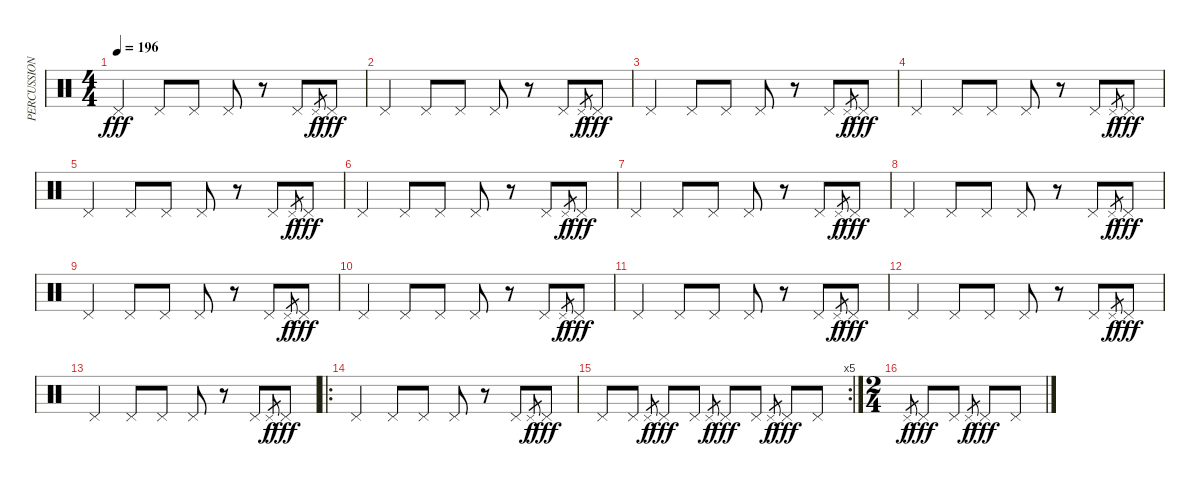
\track ("PERCUSSION" "PERCUSSION") {instrument percussion}
\staff {score}
\articulation defaults
\ts (4 4)
\tempo 196
\clef neutral
\ks c "Pedal Hi-Hat (hit)".4{dy fff} "Pedal Hi-Hat (hit)".8 "Pedal Hi-Hat (hit)".8 "Pedal Hi-Hat (hit)".8
r.8 "Pedal Hi-Hat (hit)".8 "Pedal Hi-Hat (hit)".8{gr dy f} "Pedal Hi-Hat (hit)".8{dy fff} |
"Pedal Hi-Hat (hit)".4 "Pedal Hi-Hat (hit)".8 "Pedal Hi-Hat (hit)".8 "Pedal Hi-Hat (hit)".8 r.8 "Pedal Hi-Hat (hit)".8 "Pedal Hi-Hat (hit)".8{gr dy f} "Pedal Hi-Hat (hit)".8{dy fff} |
"Pedal Hi-Hat (hit)".4 "Pedal Hi-Hat (hit)".8 "Pedal Hi-Hat (hit)".8 "Pedal Hi-Hat (hit)".8 r.8 "Pedal Hi-Hat (hit)".8 "Pedal Hi-Hat (hit)".8{gr dy f} "Pedal Hi-Hat (hit)".8{dy fff} |
"Pedal Hi-Hat (hit)".4 "Pedal Hi-Hat (hit)".8 "Pedal Hi-Hat (hit)".8 "Pedal Hi-Hat (hit)".8 r.8 "Pedal Hi-Hat (hit)".8 "Pedal Hi-Hat (hit)".8{gr dy f} "Pedal Hi-Hat (hit)".8{dy fff} |
"Pedal Hi-Hat (hit)".4 "Pedal Hi-Hat (hit)".8 "Pedal Hi-Hat (hit)".8 "Pedal Hi-Hat (hit)".8 r.8 "Pedal Hi-Hat (hit)".8 "Pedal Hi-Hat (hit)".8{gr dy f} "Pedal Hi-Hat (hit)".8{dy fff} |
"Pedal Hi-Hat (hit)".4 "Pedal Hi-Hat (hit)".8 "Pedal Hi-Hat (hit)".8 "Pedal Hi-Hat (hit)".8 r.8 "Pedal Hi-Hat (hit)".8 "Pedal Hi-Hat (hit)".8{gr dy f} "Pedal Hi-Hat (hit)".8{dy fff} |
"Pedal Hi-Hat (hit)".4 "Pedal Hi-Hat (hit)".8 "Pedal Hi-Hat (hit)".8 "Pedal Hi-Hat (hit)".8 r.8 "Pedal Hi-Hat (hit)".8 "Pedal Hi-Hat (hit)".8{gr dy f} "Pedal Hi-Hat (hit)".8{dy fff} |
"Pedal Hi-Hat (hit)".4 "Pedal Hi-Hat (hit)".8 "Pedal Hi-Hat (hit)".8 "Pedal Hi-Hat (hit)".8 r.8 "Pedal Hi-Hat (hit)".8 "Pedal Hi-Hat (hit)".8{gr dy f} "Pedal Hi-Hat (hit)".8{dy fff} |
"Pedal Hi-Hat (hit)".4 "Pedal Hi-Hat (hit)".8 "Pedal Hi-Hat (hit)".8 "Pedal Hi-Hat (hit)".8 r.8 "Pedal Hi-Hat (hit)".8 "Pedal Hi-Hat (hit)".8{gr dy f} "Pedal Hi-Hat (hit)".8{dy fff} |
"Pedal Hi-Hat (hit)".4 "Pedal Hi-Hat (hit)".8 "Pedal Hi-Hat (hit)".8 "Pedal Hi-Hat (hit)".8 r.8 "Pedal Hi-Hat (hit)".8 "Pedal Hi-Hat (hit)".8{gr dy f} "Pedal Hi-Hat (hit)".8{dy fff} |
"Pedal Hi-Hat (hit)".4 "Pedal Hi-Hat (hit)".8 "Pedal Hi-Hat (hit)".8 "Pedal Hi-Hat (hit)".8 r.8 "Pedal Hi-Hat (hit)".8 "Pedal Hi-Hat (hit)".8{gr dy f} "Pedal Hi-Hat (hit)".8{dy fff} |
"Pedal Hi-Hat (hit)".4 "Pedal Hi-Hat (hit)".8 "Pedal Hi-Hat (hit)".8 "Pedal Hi-Hat (hit)".8 r.8 "Pedal Hi-Hat (hit)".8 "Pedal Hi-Hat (hit)".8{gr dy f} "Pedal Hi-Hat (hit)".8{dy fff} |
"Pedal Hi-Hat (hit)".4 "Pedal Hi-Hat (hit)".8 "Pedal Hi-Hat (hit)".8 "Pedal Hi-Hat (hit)".8 r.8 "Pedal Hi-Hat (hit)".8 "Pedal Hi-Hat (hit)".8{gr dy f} "Pedal Hi-Hat (hit)".8{dy fff} |
\ro "Pedal Hi-Hat (hit)".4 "Pedal Hi-Hat (hit)".8 "Pedal Hi-Hat (hit)".8 "Pedal Hi-Hat (hit)".8
r.8 "Pedal Hi-Hat (hit)".8 "Pedal Hi-Hat (hit)".8{gr dy f} "Pedal Hi-Hat (hit)".8{dy fff} |
\rc 5 "Pedal Hi-Hat (hit)".8 "Pedal Hi-Hat (hit)".8 "Pedal Hi-Hat (hit)".8{gr dy f} "Pedal Hi-Hat (hit)".8{dy fff} "Pedal Hi-Hat (hit)".8 "Pedal Hi-Hat (hit)".8{gr dy f} "Pedal Hi-Hat (hit)".8{dy fff} "Pedal Hi-Hat (hit)".8 "Pedal Hi-Hat (hit)".8{gr dy f} "Pedal Hi-Hat (hit)".8{dy fff} "Pedal Hi-Hat (hit)".8
|
\ts (2 4)
"Pedal Hi-Hat (hit)".8{gr dy f} "Pedal Hi-Hat (hit)".8{dy fff} "Pedal Hi-Hat (hit)".8 "Pedal Hi-Hat (hit)".8{gr dy f} "Pedal Hi-Hat (hit)".8{dy fff} "Pedal Hi-Hat (hit)".8
